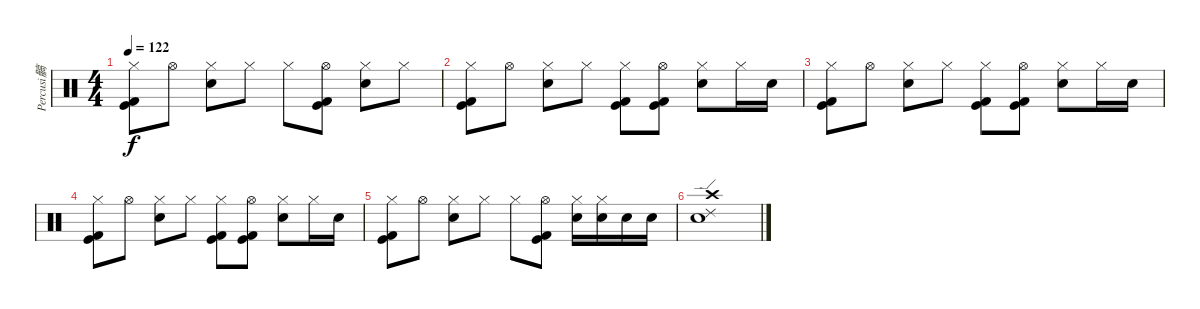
\track ("Percusi髇" "Percusi髇") {instrument percussion}
\staff {score}
\articulation defaults
\ts (4 4)
\tempo 122
\clef neutral
\ks c
("Hi-Hat (closed)" "Kick (hit) 2" "Kick (hit)").8{dy f} "Hi-Hat (open)".8 ("Hi-Hat (closed)" "Electric Snare (hit)").8 "Hi-Hat (closed)".8 "Hi-Hat (closed)".8 ("Hi-Hat (open)" "Kick (hit) 2" "Kick (hit)").8 ("Hi-Hat (closed)" "Electric Snare (hit)").8 "Hi-Hat (closed)".8 |
("Hi-Hat (closed)" "Kick (hit) 2" "Kick (hit)").8 "Hi-Hat (open)".8 ("Hi-Hat (closed)" "Electric Snare (hit)").8 "Hi-Hat (closed)".8 ("Hi-Hat (closed)" "Kick (hit) 2" "Kick (hit)").8 ("Hi-Hat (open)" "Kick (hit) 2" "Kick (hit)").8 ("Hi-Hat (closed)" "Electric Snare (hit)").8 "Hi-Hat (closed)".16 "Electric Snare (hit)".16 |
("Hi-Hat (closed)" "Kick (hit) 2" "Kick (hit)").8 "Hi-Hat (open)".8 ("Hi-Hat (closed)" "Electric Snare (hit)").8 "Hi-Hat (closed)".8 ("Hi-Hat (closed)" "Kick (hit) 2" "Kick (hit)").8 ("Hi-Hat (open)" "Kick (hit) 2" "Kick (hit)").8 ("Hi-Hat (closed)" "Electric Snare (hit)").8 "Hi-Hat (closed)".16 "Electric Snare (hit)".16 |
("Hi-Hat (closed)" "Kick (hit) 2" "Kick (hit)").8 "Hi-Hat (open)".8 ("Hi-Hat (closed)" "Electric Snare (hit)").8 "Hi-Hat (closed)".8 ("Hi-Hat (closed)" "Kick (hit) 2" "Kick (hit)").8 ("Hi-Hat (open)" "Kick (hit) 2" "Kick (hit)").8 ("Hi-Hat (closed)" "Electric Snare (hit)").8 "Hi-Hat (closed)".16 "Electric Snare (hit)".16 |
("Hi-Hat (closed)" "Kick (hit) 2" "Kick (hit)").8 "Hi-Hat (open)".8 ("Hi-Hat (closed)" "Electric Snare (hit)").8 "Hi-Hat (closed)".8 "Hi-Hat (closed)".8 ("Hi-Hat (open)" "Kick (hit) 2" "Kick (hit)").8 ("Hi-Hat (closed)" "Electric Snare (hit)").16 ("Hi-Hat (closed)" "Electric Snare (hit)").16 "Electric Snare (hit)".16 "Electric Snare (hit)".16 |
("Electric Snare (hit)" "Ride (edge) 2" "Crash high (hit)").1
